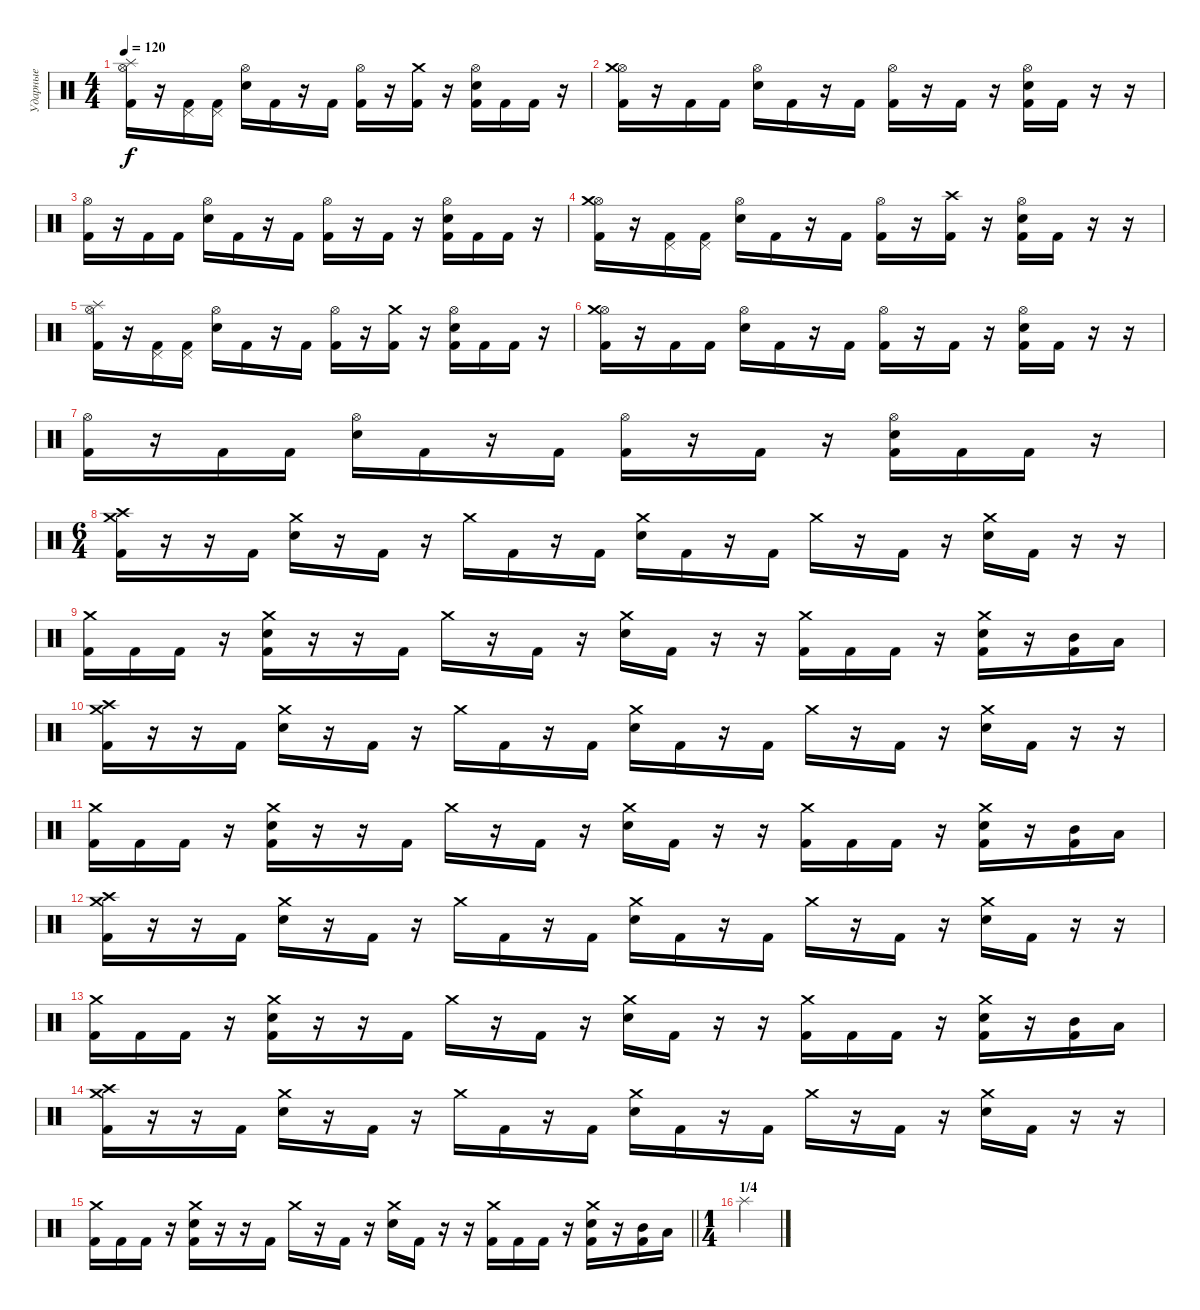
\track ("Ударные" "Ударные") {instrument percussion}
\staff {score}
\articulation defaults
\ts (4 4)
\tempo 120
\clef neutral
\ks c
("Hi-Hat (open)" "Splash (hit)" "Kick (hit) 2").16{dy f} r.16 ("Pedal Hi-Hat (hit)" "Kick (hit) 2").16 ("Pedal Hi-Hat (hit)" "Kick (hit) 2").16 ("Hi-Hat (open)" "Electric Snare (hit)").16 "Kick (hit) 2".16 r.16 "Kick (hit) 2".16 ("Hi-Hat (open)" "Kick (hit) 2").16 r.16 ("Crash medium (hit)" "Kick (hit) 2").16 r.16 ("Hi-Hat (open)" "Electric Snare (hit)" "Kick (hit) 2").16 "Kick (hit) 2".16 "Kick (hit) 2".16 r.16 |
("Hi-Hat (open)" "Crash medium (hit)" "Kick (hit) 2").16 r.16 "Kick (hit) 2".16 "Kick (hit) 2".16 ("Hi-Hat (open)" "Electric Snare (hit)").16 "Kick (hit) 2".16 r.16 "Kick (hit) 2".16 ("Hi-Hat (open)" "Kick (hit) 2").16 r.16 "Kick (hit) 2".16 r.16 ("Hi-Hat (open)" "Electric Snare (hit)" "Kick (hit) 2").16 "Kick (hit) 2".16 r.16 r.16 |
("Hi-Hat (open)" "Kick (hit) 2").16 r.16 "Kick (hit) 2".16 "Kick (hit) 2".16 ("Hi-Hat (open)" "Electric Snare (hit)").16 "Kick (hit) 2".16 r.16 "Kick (hit) 2".16 ("Hi-Hat (open)" "Kick (hit) 2").16 r.16 "Kick (hit) 2".16 r.16 ("Hi-Hat (open)" "Electric Snare (hit)" "Kick (hit) 2").16 "Kick (hit) 2".16 "Kick (hit) 2".16 r.16 |
("Hi-Hat (open)" "Crash medium (hit)" "Kick (hit) 2").16 r.16 ("Pedal Hi-Hat (hit)" "Kick (hit) 2").16 ("Pedal Hi-Hat (hit)" "Kick (hit) 2").16 ("Hi-Hat (open)" "Electric Snare (hit)").16 "Kick (hit) 2".16 r.16 "Kick (hit) 2".16 ("Hi-Hat (open)" "Kick (hit) 2").16 r.16 ("Crash high (hit)" "Kick (hit) 2").16 r.16 ("Hi-Hat (open)" "Electric Snare (hit)" "Kick (hit) 2").16 "Kick (hit) 2".16 r.16 r.16 |
("Hi-Hat (open)" "Splash (hit)" "Kick (hit) 2").16 r.16 ("Pedal Hi-Hat (hit)" "Kick (hit) 2").16 ("Pedal Hi-Hat (hit)" "Kick (hit) 2").16 ("Hi-Hat (open)" "Electric Snare (hit)").16 "Kick (hit) 2".16 r.16 "Kick (hit) 2".16 ("Hi-Hat (open)" "Kick (hit) 2").16 r.16 ("Crash medium (hit)" "Kick (hit) 2").16 r.16 ("Hi-Hat (open)" "Electric Snare (hit)" "Kick (hit) 2").16 "Kick (hit) 2".16 "Kick (hit) 2".16 r.16 |
("Hi-Hat (open)" "Crash medium (hit)" "Kick (hit) 2").16 r.16 "Kick (hit) 2".16 "Kick (hit) 2".16 ("Hi-Hat (open)" "Electric Snare (hit)").16 "Kick (hit) 2".16 r.16 "Kick (hit) 2".16 ("Hi-Hat (open)" "Kick (hit) 2").16 r.16 "Kick (hit) 2".16 r.16 ("Hi-Hat (open)" "Electric Snare (hit)" "Kick (hit) 2").16 "Kick (hit) 2".16 r.16 r.16 |
("Hi-Hat (open)" "Kick (hit) 2").16 r.16 "Kick (hit) 2".16 "Kick (hit) 2".16 ("Hi-Hat (open)" "Electric Snare (hit)").16 "Kick (hit) 2".16 r.16 "Kick (hit) 2".16 ("Hi-Hat (open)" "Kick (hit) 2").16 r.16 "Kick (hit) 2".16 r.16 ("Hi-Hat (open)" "Electric Snare (hit)" "Kick (hit) 2").16 "Kick (hit) 2".16 "Kick (hit) 2".16 r.16 |
\ts (6 4)
("Crash medium (hit)" "Crash high (hit)" "Kick (hit) 2").16 r.16 r.16 "Kick (hit) 2".16 ("Crash medium (hit)" "Electric Snare (hit)").16 r.16 "Kick (hit) 2".16 r.16 "Crash medium (hit)".16 "Kick (hit) 2".16 r.16 "Kick (hit) 2".16 ("Crash medium (hit)" "Electric Snare (hit)").16 "Kick (hit) 2".16 r.16 "Kick (hit) 2".16 "Crash medium (hit)".16 r.16 "Kick (hit) 2".16 r.16 ("Crash medium (hit)" "Electric Snare (hit)").16 "Kick (hit) 2".16 r.16 r.16 |
("Crash medium (hit)" "Kick (hit) 2").16 "Kick (hit) 2".16 "Kick (hit) 2".16 r.16 ("Crash medium (hit)" "Electric Snare (hit)" "Kick (hit) 2").16 r.16 r.16 "Kick (hit) 2".16 "Crash medium (hit)".16 r.16 "Kick (hit) 2".16 r.16 ("Crash medium (hit)" "Electric Snare (hit)").16 "Kick (hit) 2".16 r.16 r.16 ("Crash medium (hit)" "Kick (hit) 2").16 "Kick (hit) 2".16 "Kick (hit) 2".16 r.16 ("Crash medium (hit)" "Electric Snare (hit)" "Kick (hit) 2").16 r.16 ("Mid Tom (hit)" "Kick (hit) 2").16 "Low Tom (hit)".16 |
("Crash medium (hit)" "Crash high (hit)" "Kick (hit) 2").16 r.16 r.16 "Kick (hit) 2".16 ("Crash medium (hit)" "Electric Snare (hit)").16 r.16 "Kick (hit) 2".16 r.16 "Crash medium (hit)".16 "Kick (hit) 2".16 r.16 "Kick (hit) 2".16 ("Crash medium (hit)" "Electric Snare (hit)").16 "Kick (hit) 2".16 r.16 "Kick (hit) 2".16 "Crash medium (hit)".16 r.16 "Kick (hit) 2".16 r.16 ("Crash medium (hit)" "Electric Snare (hit)").16 "Kick (hit) 2".16 r.16 r.16 |
("Crash medium (hit)" "Kick (hit) 2").16 "Kick (hit) 2".16 "Kick (hit) 2".16 r.16 ("Crash medium (hit)" "Electric Snare (hit)" "Kick (hit) 2").16 r.16 r.16 "Kick (hit) 2".16 "Crash medium (hit)".16 r.16 "Kick (hit) 2".16 r.16 ("Crash medium (hit)" "Electric Snare (hit)").16 "Kick (hit) 2".16 r.16 r.16 ("Crash medium (hit)" "Kick (hit) 2").16 "Kick (hit) 2".16 "Kick (hit) 2".16 r.16 ("Crash medium (hit)" "Electric Snare (hit)" "Kick (hit) 2").16 r.16 ("Mid Tom (hit)" "Kick (hit) 2").16 "Low Tom (hit)".16 |
("Crash medium (hit)" "Crash high (hit)" "Kick (hit) 2").16 r.16 r.16 "Kick (hit) 2".16 ("Crash medium (hit)" "Electric Snare (hit)").16 r.16 "Kick (hit) 2".16 r.16 "Crash medium (hit)".16 "Kick (hit) 2".16 r.16 "Kick (hit) 2".16 ("Crash medium (hit)" "Electric Snare (hit)").16 "Kick (hit) 2".16 r.16 "Kick (hit) 2".16 "Crash medium (hit)".16 r.16 "Kick (hit) 2".16 r.16 ("Crash medium (hit)" "Electric Snare (hit)").16 "Kick (hit) 2".16 r.16 r.16 |
("Crash medium (hit)" "Kick (hit) 2").16 "Kick (hit) 2".16 "Kick (hit) 2".16 r.16 ("Crash medium (hit)" "Electric Snare (hit)" "Kick (hit) 2").16 r.16 r.16 "Kick (hit) 2".16 "Crash medium (hit)".16 r.16 "Kick (hit) 2".16 r.16 ("Crash medium (hit)" "Electric Snare (hit)").16 "Kick (hit) 2".16 r.16 r.16 ("Crash medium (hit)" "Kick (hit) 2").16 "Kick (hit) 2".16 "Kick (hit) 2".16 r.16 ("Crash medium (hit)" "Electric Snare (hit)" "Kick (hit) 2").16 r.16 ("Mid Tom (hit)" "Kick (hit) 2").16 "Low Tom (hit)".16 |
("Crash medium (hit)" "Crash high (hit)" "Kick (hit) 2").16 r.16 r.16 "Kick (hit) 2".16 ("Crash medium (hit)" "Electric Snare (hit)").16 r.16 "Kick (hit) 2".16 r.16 "Crash medium (hit)".16 "Kick (hit) 2".16 r.16 "Kick (hit) 2".16 ("Crash medium (hit)" "Electric Snare (hit)").16 "Kick (hit) 2".16 r.16 "Kick (hit) 2".16 "Crash medium (hit)".16 r.16 "Kick (hit) 2".16 r.16 ("Crash medium (hit)" "Electric Snare (hit)").16 "Kick (hit) 2".16 r.16 r.16 |
\barLineRight lightlight
("Crash medium (hit)" "Kick (hit) 2").16 "Kick (hit) 2".16 "Kick (hit) 2".16 r.16 ("Crash medium (hit)" "Electric Snare (hit)" "Kick (hit) 2").16 r.16 r.16 "Kick (hit) 2".16 "Crash medium (hit)".16 r.16 "Kick (hit) 2".16 r.16 ("Crash medium (hit)" "Electric Snare (hit)").16 "Kick (hit) 2".16 r.16 r.16 ("Crash medium (hit)" "Kick (hit) 2").16 "Kick (hit) 2".16 "Kick (hit) 2".16 r.16 ("Crash medium (hit)" "Electric Snare (hit)" "Kick (hit) 2").16 r.16 ("Mid Tom (hit)" "Kick (hit) 2").16 "Low Tom (hit)".16 |
\ts (1 4)
\section ("" "1/4")
"Splash (hit)".4
